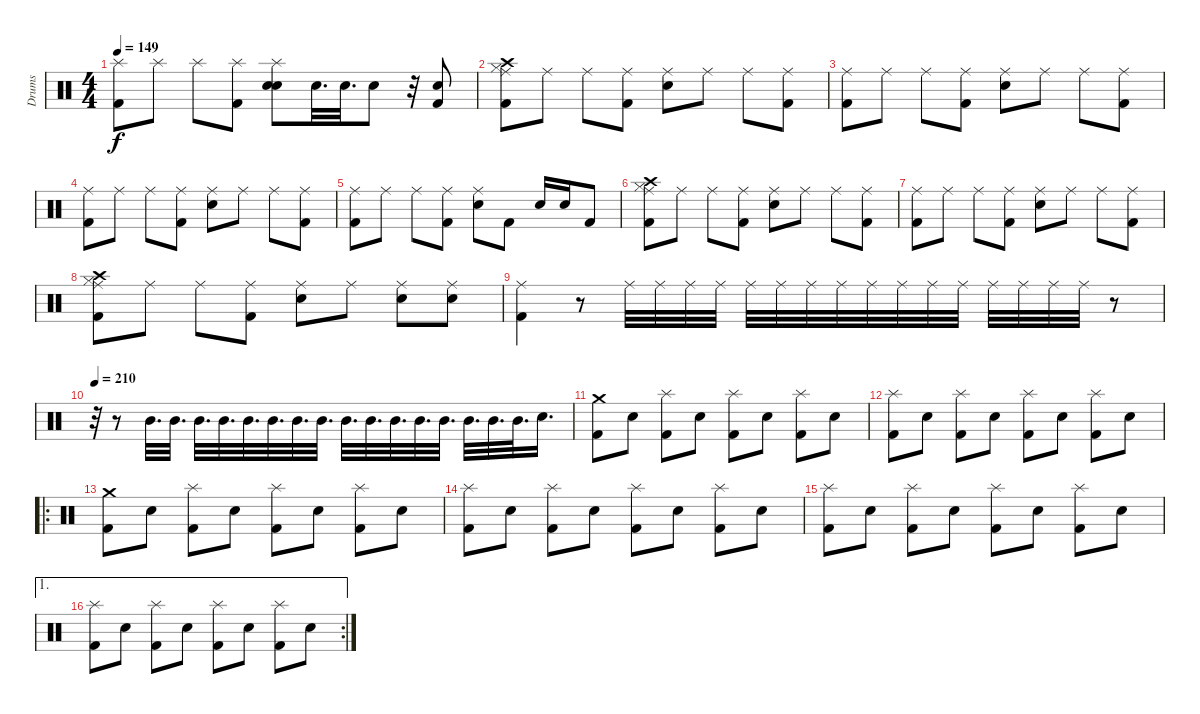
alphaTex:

\track ("Drums" "Drums") {instrument percussion}
\staff {score}
\articulation defaults
\ts (4 4)
\tempo 149
\clef neutral
\ks c
("Splash (hit)" "Kick (hit) 2").8{dy f} "Splash (hit)".8 "Splash (hit)".8 ("Splash (hit)" "Kick (hit) 2").8 ("Splash (hit)" "Snare (hit) 2" "Electric Snare (hit)").8 "Snare (hit) 2".32{d} "Snare (hit) 2".32{d} "Electric Snare (hit)".8 r.32 ("Electric Snare (hit)" "Kick (hit) 2").8 |
("Ride (middle)" "Hi-Hat (closed)" "Crash high (hit)" "Kick (hit) 2").8 "Ride (middle)".8 "Ride (middle)".8 ("Ride (middle)" "Kick (hit) 2").8 ("Ride (middle)" "Electric Snare (hit)").8 "Ride (middle)".8 "Ride (middle)".8 ("Ride (middle)" "Kick (hit) 2").8 |
("Ride (middle)" "Kick (hit) 2").8 "Ride (middle)".8 "Ride (middle)".8 ("Ride (middle)" "Kick (hit) 2").8 ("Ride (middle)" "Electric Snare (hit)").8 "Ride (middle)".8 "Ride (middle)".8 ("Ride (middle)" "Kick (hit) 2").8 |
("Ride (middle)" "Kick (hit) 2").8 "Ride (middle)".8 "Ride (middle)".8 ("Ride (middle)" "Kick (hit) 2").8 ("Ride (middle)" "Electric Snare (hit)").8 "Ride (middle)".8 "Ride (middle)".8 ("Ride (middle)" "Kick (hit) 2").8 |
("Ride (middle)" "Kick (hit) 2").8 "Ride (middle)".8 "Ride (middle)".8 ("Ride (middle)" "Kick (hit) 2").8 ("Ride (middle)" "Electric Snare (hit)").8 "Kick (hit) 2".8 "Electric Snare (hit)".16 "Electric Snare (hit)".16 "Kick (hit) 2".8 |
("Ride (middle)" "Hi-Hat (closed)" "Crash high (hit)" "Kick (hit) 2").8 "Ride (middle)".8 "Ride (middle)".8 ("Ride (middle)" "Kick (hit) 2").8 ("Ride (middle)" "Electric Snare (hit)").8 "Ride (middle)".8 "Ride (middle)".8 ("Ride (middle)" "Kick (hit) 2").8 |
("Ride (middle)" "Kick (hit) 2").8 "Ride (middle)".8 "Ride (middle)".8 ("Ride (middle)" "Kick (hit) 2").8 ("Ride (middle)" "Electric Snare (hit)").8 "Ride (middle)".8 "Ride (middle)".8 ("Ride (middle)" "Kick (hit) 2").8 |
("Ride (middle)" "Hi-Hat (closed)" "Crash high (hit)" "Kick (hit) 2").8 "Ride (middle)".8 "Ride (middle)".8 ("Ride (middle)" "Kick (hit) 2").8 ("Ride (middle)" "Electric Snare (hit)").8 "Ride (middle)".8 ("Ride (middle)" "Electric Snare (hit)").8 ("Ride (middle)" "Electric Snare (hit)").8 |
("Ride (middle)" "Kick (hit) 2").4 r.8 "Ride (middle)".32 "Ride (middle)".32 "Ride (middle)".32 "Ride (middle)".32 "Ride (middle)".32 "Ride (middle)".32 "Ride (middle)".32 "Ride (middle)".32 "Ride (middle)".32 "Ride (middle)".32 "Ride (middle)".32 "Ride (middle)".32 "Ride (middle)".32 "Ride (middle)".32 "Ride (middle)".32 "Ride (middle)".32 r.8 |
\tempo 210
r.32 r.8 "Mid Tom (hit)".32{d} "Mid Tom (hit)".32{d} "Mid Tom (hit)".32{d} "Mid Tom (hit)".32{d} "Mid Tom (hit)".32{d} "Mid Tom (hit)".32{d} "Mid Tom (hit)".32{d} "Mid Tom (hit)".32{d} "Mid Tom (hit)".32{d} "Mid Tom (hit)".32{d} "Mid Tom (hit)".32{d} "Mid Tom (hit)".32{d} "Mid Tom (hit)".32{d} "Mid Tom (hit)".32{d} "Mid Tom (hit)".32{d} "Mid Tom (hit)".32{d} "Electric Snare (hit)".16{d} |
("Crash medium (hit)" "Kick (hit) 2").8 "Electric Snare (hit)".8 ("Splash (hit)" "Kick (hit) 2").8 "Electric Snare (hit)".8 ("Splash (hit)" "Kick (hit) 2").8 "Electric Snare (hit)".8 ("Splash (hit)" "Kick (hit) 2").8 "Electric Snare (hit)".8 |
("Splash (hit)" "Kick (hit) 2").8 "Electric Snare (hit)".8 ("Splash (hit)" "Kick (hit) 2").8 "Electric Snare (hit)".8 ("Splash (hit)" "Kick (hit) 2").8 "Electric Snare (hit)".8 ("Splash (hit)" "Kick (hit) 2").8 "Electric Snare (hit)".8 |
\ro
("Crash medium (hit)" "Kick (hit) 2").8 "Electric Snare (hit)".8 ("Splash (hit)" "Kick (hit) 2").8 "Electric Snare (hit)".8 ("Splash (hit)" "Kick (hit) 2").8 "Electric Snare (hit)".8 ("Splash (hit)" "Kick (hit) 2").8 "Electric Snare (hit)".8 |
("Splash (hit)" "Kick (hit) 2").8 "Electric Snare (hit)".8 ("Splash (hit)" "Kick (hit) 2").8 "Electric Snare (hit)".8 ("Splash (hit)" "Kick (hit) 2").8 "Electric Snare (hit)".8 ("Splash (hit)" "Kick (hit) 2").8 "Electric Snare (hit)".8 |
("Splash (hit)" "Kick (hit) 2").8 "Electric Snare (hit)".8 ("Splash (hit)" "Kick (hit) 2").8 "Electric Snare (hit)".8 ("Splash (hit)" "Kick (hit) 2").8 "Electric Snare (hit)".8 ("Splash (hit)" "Kick (hit) 2").8 "Electric Snare (hit)".8 |
\ae 1
\rc 2
("Splash (hit)" "Kick (hit) 2").8 "Electric Snare (hit)".8 ("Splash (hit)" "Kick (hit) 2").8 "Electric Snare (hit)".8 ("Splash (hit)" "Kick (hit) 2").8 "Electric Snare (hit)".8 ("Splash (hit)" "Kick (hit) 2").8 "Electric Snare (hit)".8
